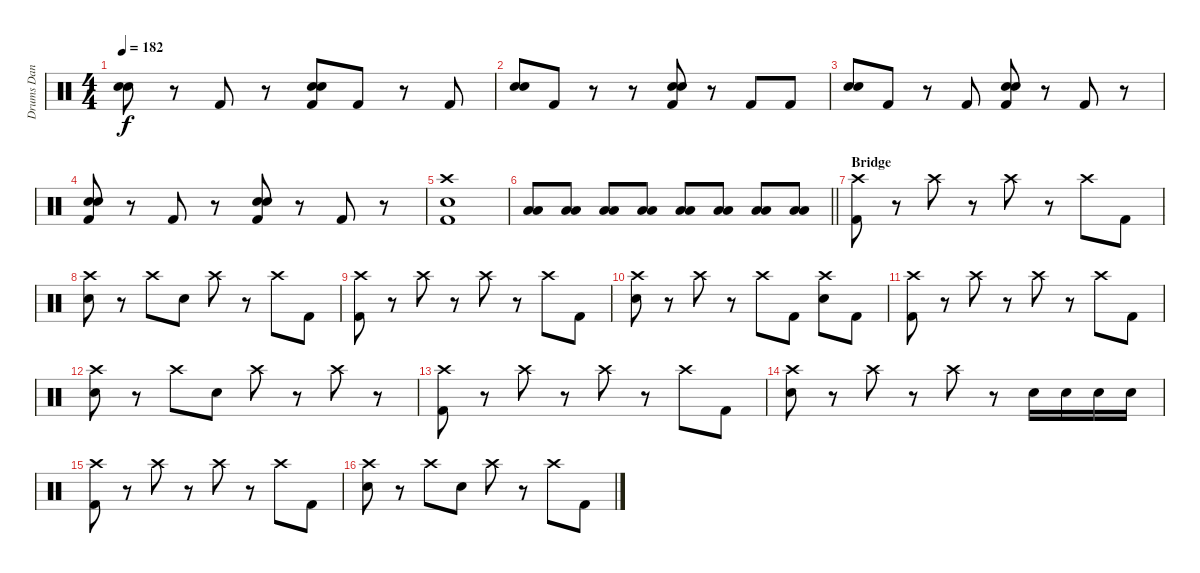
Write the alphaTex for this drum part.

\track ("Drums Dan Searle" "Drums Dan ") {instrument percussion}
\staff {score}
\articulation defaults
\ts (4 4)
\tempo 182
\clef neutral
\ks c
("Electric Snare (hit)" "Electric Snare (hit)").8{dy f} r.8 "Kick (hit) 2".8 r.8 ("Electric Snare (hit)" "Electric Snare (hit)" "Kick (hit) 2").8 "Kick (hit) 2".8 r.8 "Kick (hit) 2".8 |
("Electric Snare (hit)" "Electric Snare (hit)").8 "Kick (hit) 2".8 r.8 r.8 ("Electric Snare (hit)" "Electric Snare (hit)" "Kick (hit) 2").8 r.8 "Kick (hit) 2".8 "Kick (hit) 2".8 |
("Electric Snare (hit)" "Electric Snare (hit)").8 "Kick (hit) 2".8 r.8 "Kick (hit) 2".8 ("Electric Snare (hit)" "Electric Snare (hit)" "Kick (hit) 2").8 r.8 "Kick (hit) 2".8 r.8 |
("Electric Snare (hit)" "Electric Snare (hit)" "Kick (hit) 2").8 r.8 "Kick (hit) 2".8 r.8 ("Electric Snare (hit)" "Electric Snare (hit)" "Kick (hit) 2").8 r.8 "Kick (hit) 2".8 r.8 |
("Crash high (hit)" "Electric Snare (hit)" "Kick (hit) 2").1 |
\barLineRight lightlight
("Low Tom (hit)" "Low Tom (hit)").8 ("Low Tom (hit)" "Low Tom (hit)").8 ("Low Tom (hit)" "Low Tom (hit)").8 ("Low Tom (hit)" "Low Tom (hit)").8 ("Low Tom (hit)" "Low Tom (hit)").8 ("Low Tom (hit)" "Low Tom (hit)").8 ("Low Tom (hit)" "Low Tom (hit)").8 ("Low Tom (hit)" "Low Tom (hit)").8 |
\section ("" "Bridge")
("Crash high (hit)" "Kick (hit) 2").8 r.8 "Crash high (hit)".8 r.8 "Crash high (hit)".8 r.8 "Crash high (hit)".8 "Kick (hit) 2".8 |
("Crash high (hit)" "Electric Snare (hit)").8 r.8 "Crash high (hit)".8 "Electric Snare (hit)".8 "Crash high (hit)".8 r.8 "Crash high (hit)".8 "Kick (hit) 2".8 |
("Crash high (hit)" "Kick (hit) 2").8 r.8 "Crash high (hit)".8 r.8 "Crash high (hit)".8 r.8 "Crash high (hit)".8 "Kick (hit) 2".8 |
("Crash high (hit)" "Electric Snare (hit)").8 r.8 "Crash high (hit)".8 r.8 "Crash high (hit)".8 "Kick (hit) 2".8 ("Crash high (hit)" "Electric Snare (hit)").8 "Kick (hit) 2".8 |
("Crash high (hit)" "Kick (hit) 2").8 r.8 "Crash high (hit)".8 r.8 "Crash high (hit)".8 r.8 "Crash high (hit)".8 "Kick (hit) 2".8 |
("Crash high (hit)" "Electric Snare (hit)").8 r.8 "Crash high (hit)".8 "Electric Snare (hit)".8 "Crash high (hit)".8 r.8 "Crash high (hit)".8 r.8 |
("Crash high (hit)" "Kick (hit) 2").8 r.8 "Crash high (hit)".8 r.8 "Crash high (hit)".8 r.8 "Crash high (hit)".8 "Kick (hit) 2".8 |
("Crash high (hit)" "Electric Snare (hit)").8 r.8 "Crash high (hit)".8 r.8 "Crash high (hit)".8 r.8 "Electric Snare (hit)".16 "Electric Snare (hit)".16 "Electric Snare (hit)".16 "Electric Snare (hit)".16 |
("Crash high (hit)" "Kick (hit) 2").8 r.8 "Crash high (hit)".8 r.8 "Crash high (hit)".8 r.8 "Crash high (hit)".8 "Kick (hit) 2".8 |
("Crash high (hit)" "Electric Snare (hit)").8 r.8 "Crash high (hit)".8 "Electric Snare (hit)".8 "Crash high (hit)".8 r.8 "Crash high (hit)".8 "Kick (hit) 2".8
